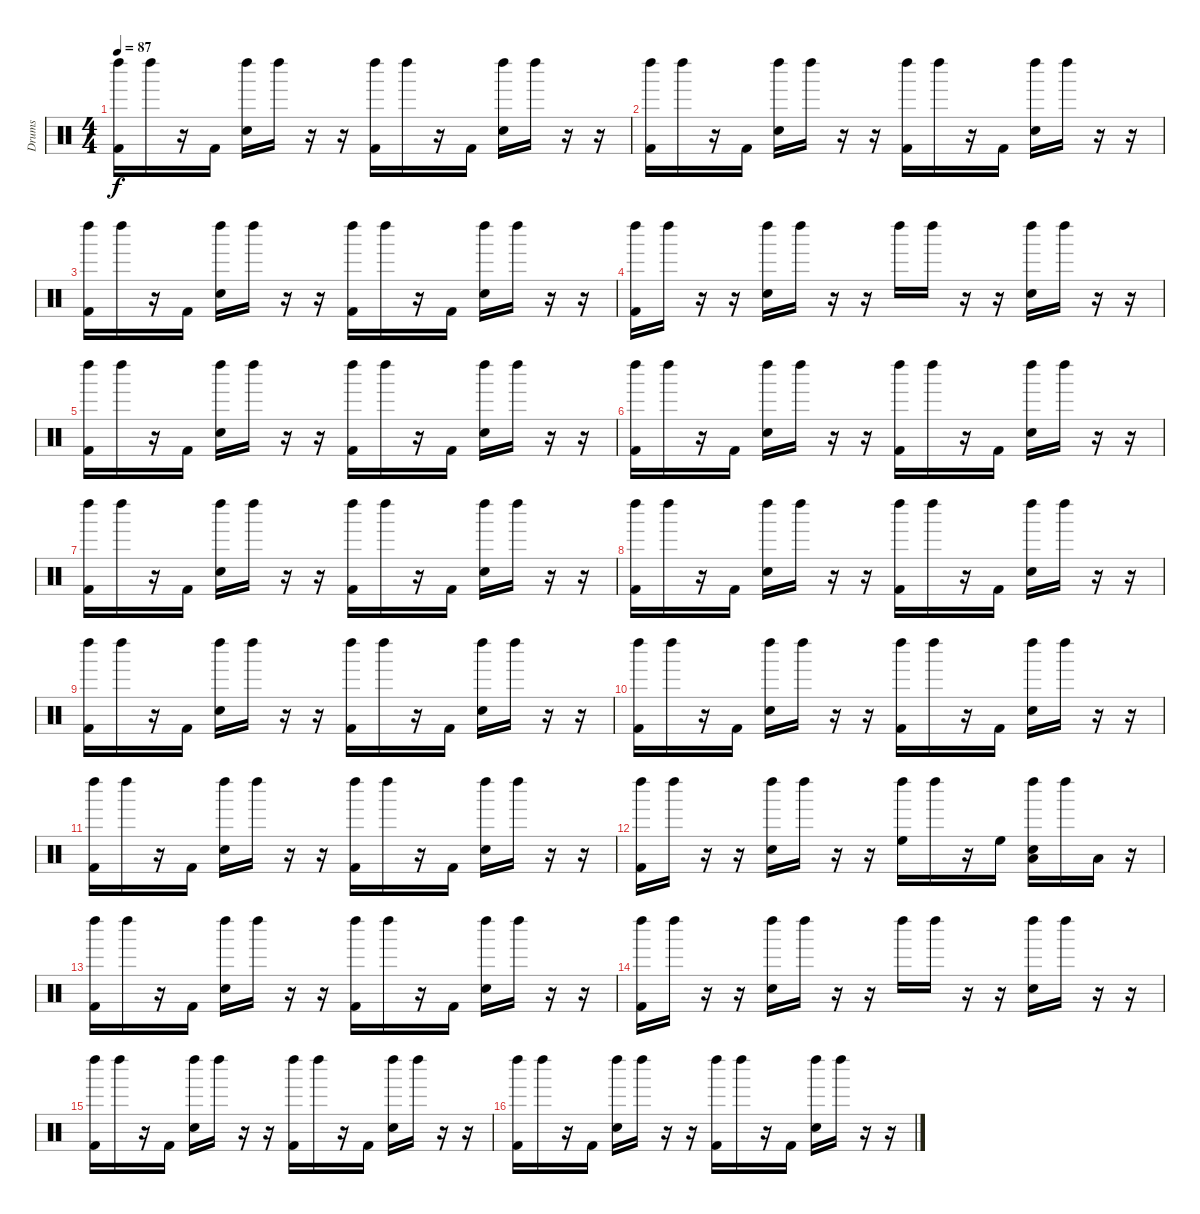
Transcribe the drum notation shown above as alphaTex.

\track ("Drums" "Drums") {instrument percussion}
\staff {score}
\articulation defaults
\ts (4 4)
\tempo 87
\clef neutral
\ks c
("Left Maraca (hit)" "Kick (hit) 2").16{dy f} "Left Maraca (hit)".16 r.16 "Kick (hit) 2".16 ("Left Maraca (hit)" "Hand Clap (hit)").16 "Left Maraca (hit)".16 r.16 r.16 ("Left Maraca (hit)" "Kick (hit) 2").16 "Left Maraca (hit)".16 r.16 "Kick (hit) 2".16 ("Left Maraca (hit)" "Hand Clap (hit)").16 "Left Maraca (hit)".16 r.16 r.16 |
("Left Maraca (hit)" "Kick (hit) 2").16 "Left Maraca (hit)".16 r.16 "Kick (hit) 2".16 ("Left Maraca (hit)" "Hand Clap (hit)").16 "Left Maraca (hit)".16 r.16 r.16 ("Left Maraca (hit)" "Kick (hit) 2").16 "Left Maraca (hit)".16 r.16 "Kick (hit) 2".16 ("Left Maraca (hit)" "Hand Clap (hit)").16 "Left Maraca (hit)".16 r.16 r.16 |
("Left Maraca (hit)" "Kick (hit) 2").16 "Left Maraca (hit)".16 r.16 "Kick (hit) 2".16 ("Left Maraca (hit)" "Hand Clap (hit)").16 "Left Maraca (hit)".16 r.16 r.16 ("Left Maraca (hit)" "Kick (hit) 2").16 "Left Maraca (hit)".16 r.16 "Kick (hit) 2".16 ("Left Maraca (hit)" "Hand Clap (hit)").16 "Left Maraca (hit)".16 r.16 r.16 |
("Left Maraca (hit)" "Kick (hit) 2").16 "Left Maraca (hit)".16 r.16 r.16 ("Left Maraca (hit)" "Hand Clap (hit)").16 "Left Maraca (hit)".16 r.16 r.16 "Left Maraca (hit)".16 "Left Maraca (hit)".16 r.16 r.16 ("Left Maraca (hit)" "Hand Clap (hit)").16 "Left Maraca (hit)".16 r.16 r.16 |
("Left Maraca (hit)" "Kick (hit) 2").16 "Left Maraca (hit)".16 r.16 "Kick (hit) 2".16 ("Left Maraca (hit)" "Hand Clap (hit)").16 "Left Maraca (hit)".16 r.16 r.16 ("Left Maraca (hit)" "Kick (hit) 2").16 "Left Maraca (hit)".16 r.16 "Kick (hit) 2".16 ("Left Maraca (hit)" "Hand Clap (hit)").16 "Left Maraca (hit)".16 r.16 r.16 |
("Left Maraca (hit)" "Kick (hit) 2").16 "Left Maraca (hit)".16 r.16 "Kick (hit) 2".16 ("Left Maraca (hit)" "Hand Clap (hit)").16 "Left Maraca (hit)".16 r.16 r.16 ("Left Maraca (hit)" "Kick (hit) 2").16 "Left Maraca (hit)".16 r.16 "Kick (hit) 2".16 ("Left Maraca (hit)" "Hand Clap (hit)").16 "Left Maraca (hit)".16 r.16 r.16 |
("Left Maraca (hit)" "Kick (hit) 2").16 "Left Maraca (hit)".16 r.16 "Kick (hit) 2".16 ("Left Maraca (hit)" "Hand Clap (hit)").16 "Left Maraca (hit)".16 r.16 r.16 ("Left Maraca (hit)" "Kick (hit) 2").16 "Left Maraca (hit)".16 r.16 "Kick (hit) 2".16 ("Left Maraca (hit)" "Hand Clap (hit)").16 "Left Maraca (hit)".16 r.16 r.16 |
("Left Maraca (hit)" "Kick (hit) 2").16 "Left Maraca (hit)".16 r.16 "Kick (hit) 2".16 ("Left Maraca (hit)" "Hand Clap (hit)").16 "Left Maraca (hit)".16 r.16 r.16 ("Left Maraca (hit)" "Kick (hit) 2").16 "Left Maraca (hit)".16 r.16 "Kick (hit) 2".16 ("Left Maraca (hit)" "Hand Clap (hit)").16 "Left Maraca (hit)".16 r.16 r.16 |
("Left Maraca (hit)" "Kick (hit) 2").16 "Left Maraca (hit)".16 r.16 "Kick (hit) 2".16 ("Left Maraca (hit)" "Hand Clap (hit)").16 "Left Maraca (hit)".16 r.16 r.16 ("Left Maraca (hit)" "Kick (hit) 2").16 "Left Maraca (hit)".16 r.16 "Kick (hit) 2".16 ("Left Maraca (hit)" "Hand Clap (hit)").16 "Left Maraca (hit)".16 r.16 r.16 |
("Left Maraca (hit)" "Kick (hit) 2").16 "Left Maraca (hit)".16 r.16 "Kick (hit) 2".16 ("Left Maraca (hit)" "Hand Clap (hit)").16 "Left Maraca (hit)".16 r.16 r.16 ("Left Maraca (hit)" "Kick (hit) 2").16 "Left Maraca (hit)".16 r.16 "Kick (hit) 2".16 ("Left Maraca (hit)" "Hand Clap (hit)").16 "Left Maraca (hit)".16 r.16 r.16 |
("Left Maraca (hit)" "Kick (hit) 2").16 "Left Maraca (hit)".16 r.16 "Kick (hit) 2".16 ("Left Maraca (hit)" "Hand Clap (hit)").16 "Left Maraca (hit)".16 r.16 r.16 ("Left Maraca (hit)" "Kick (hit) 2").16 "Left Maraca (hit)".16 r.16 "Kick (hit) 2".16 ("Left Maraca (hit)" "Hand Clap (hit)").16 "Left Maraca (hit)".16 r.16 r.16 |
("Left Maraca (hit)" "Kick (hit) 2").16 "Left Maraca (hit)".16 r.16 r.16 ("Left Maraca (hit)" "Hand Clap (hit)").16 "Left Maraca (hit)".16 r.16 r.16 ("Left Maraca (hit)" "High Floor Tom (hit)").16 "Left Maraca (hit)".16 r.16 "High Floor Tom (hit)".16 ("Left Maraca (hit)" "Low Tom (hit)" "Hand Clap (hit)").16 "Left Maraca (hit)".16 "Low Floor Tom (hit)".16 r.16 |
("Left Maraca (hit)" "Kick (hit) 2").16 "Left Maraca (hit)".16 r.16 "Kick (hit) 2".16 ("Left Maraca (hit)" "Hand Clap (hit)").16 "Left Maraca (hit)".16 r.16 r.16 ("Left Maraca (hit)" "Kick (hit) 2").16 "Left Maraca (hit)".16 r.16 "Kick (hit) 2".16 ("Left Maraca (hit)" "Hand Clap (hit)").16 "Left Maraca (hit)".16 r.16 r.16 |
("Left Maraca (hit)" "Kick (hit) 2").16 "Left Maraca (hit)".16 r.16 r.16 ("Left Maraca (hit)" "Hand Clap (hit)").16 "Left Maraca (hit)".16 r.16 r.16 "Left Maraca (hit)".16 "Left Maraca (hit)".16 r.16 r.16 ("Left Maraca (hit)" "Hand Clap (hit)").16 "Left Maraca (hit)".16 r.16 r.16 |
("Left Maraca (hit)" "Kick (hit) 2").16 "Left Maraca (hit)".16 r.16 "Kick (hit) 2".16 ("Left Maraca (hit)" "Hand Clap (hit)").16 "Left Maraca (hit)".16 r.16 r.16 ("Left Maraca (hit)" "Kick (hit) 2").16 "Left Maraca (hit)".16 r.16 "Kick (hit) 2".16 ("Left Maraca (hit)" "Hand Clap (hit)").16 "Left Maraca (hit)".16 r.16 r.16 |
("Left Maraca (hit)" "Kick (hit) 2").16 "Left Maraca (hit)".16 r.16 "Kick (hit) 2".16 ("Left Maraca (hit)" "Hand Clap (hit)").16 "Left Maraca (hit)".16 r.16 r.16 ("Left Maraca (hit)" "Kick (hit) 2").16 "Left Maraca (hit)".16 r.16 "Kick (hit) 2".16 ("Left Maraca (hit)" "Hand Clap (hit)").16 "Left Maraca (hit)".16 r.16 r.16
